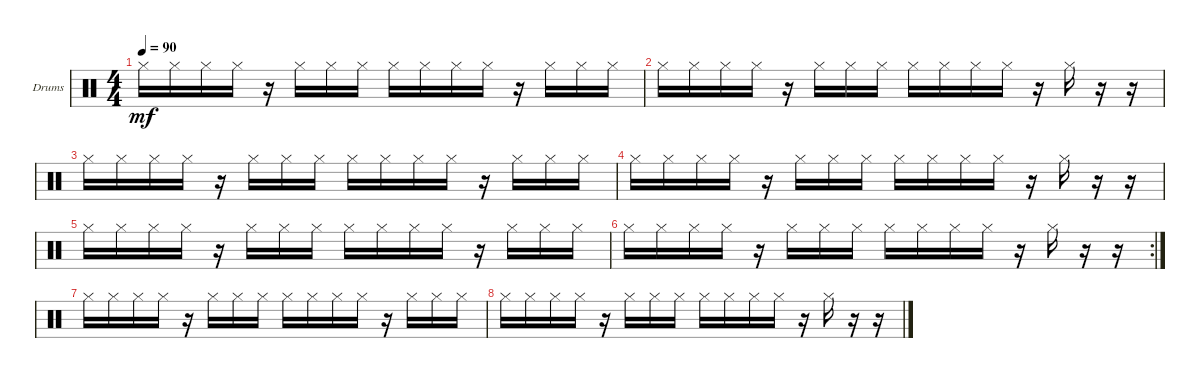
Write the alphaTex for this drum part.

\defaultSystemsLayout 4
\bracketExtendMode groupsimilarinstruments
\firstSystemTrackNameOrientation horizontal
\otherSystemsTrackNameOrientation horizontal
\track ("Drumkit" "Drums") {solo instrument percussion}
\staff {score}
\articulation defaults
\ts (4 4)
\tempo 90
\clef neutral
\ks c "Hi-Hat (closed)".16{dy mf} "Hi-Hat (closed)".16 "Hi-Hat (closed)".16 "Hi-Hat (closed)".16
r.16 "Hi-Hat (closed)".16 "Hi-Hat (closed)".16 "Hi-Hat (closed)".16 "Hi-Hat (closed)".16 "Hi-Hat (closed)".16 "Hi-Hat (closed)".16 "Hi-Hat (closed)".16 r.16 "Hi-Hat (closed)".16 "Hi-Hat (closed)".16 "Hi-Hat (closed)".16 |
"Hi-Hat (closed)".16 "Hi-Hat (closed)".16 "Hi-Hat (closed)".16 "Hi-Hat (closed)".16 r.16 "Hi-Hat (closed)".16 "Hi-Hat (closed)".16 "Hi-Hat (closed)".16 "Hi-Hat (closed)".16 "Hi-Hat (closed)".16 "Hi-Hat (closed)".16 "Hi-Hat (closed)".16 r.16 "Hi-Hat (closed)".16 r.16 r.16 |
"Hi-Hat (closed)".16 "Hi-Hat (closed)".16 "Hi-Hat (closed)".16 "Hi-Hat (closed)".16 r.16 "Hi-Hat (closed)".16 "Hi-Hat (closed)".16 "Hi-Hat (closed)".16 "Hi-Hat (closed)".16 "Hi-Hat (closed)".16 "Hi-Hat (closed)".16 "Hi-Hat (closed)".16 r.16 "Hi-Hat (closed)".16 "Hi-Hat (closed)".16 "Hi-Hat (closed)".16 |
"Hi-Hat (closed)".16 "Hi-Hat (closed)".16 "Hi-Hat (closed)".16 "Hi-Hat (closed)".16 r.16 "Hi-Hat (closed)".16 "Hi-Hat (closed)".16 "Hi-Hat (closed)".16 "Hi-Hat (closed)".16 "Hi-Hat (closed)".16 "Hi-Hat (closed)".16 "Hi-Hat (closed)".16 r.16 "Hi-Hat (closed)".16 r.16 r.16 |
"Hi-Hat (closed)".16 "Hi-Hat (closed)".16 "Hi-Hat (closed)".16 "Hi-Hat (closed)".16 r.16 "Hi-Hat (closed)".16 "Hi-Hat (closed)".16 "Hi-Hat (closed)".16 "Hi-Hat (closed)".16 "Hi-Hat (closed)".16 "Hi-Hat (closed)".16 "Hi-Hat (closed)".16 r.16 "Hi-Hat (closed)".16 "Hi-Hat (closed)".16 "Hi-Hat (closed)".16 |
\rc 2 "Hi-Hat (closed)".16 "Hi-Hat (closed)".16 "Hi-Hat (closed)".16 "Hi-Hat (closed)".16
r.16 "Hi-Hat (closed)".16 "Hi-Hat (closed)".16 "Hi-Hat (closed)".16 "Hi-Hat (closed)".16 "Hi-Hat (closed)".16 "Hi-Hat (closed)".16 "Hi-Hat (closed)".16 r.16 "Hi-Hat (closed)".16 r.16 r.16 |
"Hi-Hat (closed)".16 "Hi-Hat (closed)".16 "Hi-Hat (closed)".16 "Hi-Hat (closed)".16 r.16 "Hi-Hat (closed)".16 "Hi-Hat (closed)".16 "Hi-Hat (closed)".16 "Hi-Hat (closed)".16 "Hi-Hat (closed)".16 "Hi-Hat (closed)".16 "Hi-Hat (closed)".16 r.16 "Hi-Hat (closed)".16 "Hi-Hat (closed)".16 "Hi-Hat (closed)".16 |
"Hi-Hat (closed)".16 "Hi-Hat (closed)".16 "Hi-Hat (closed)".16 "Hi-Hat (closed)".16 r.16 "Hi-Hat (closed)".16 "Hi-Hat (closed)".16 "Hi-Hat (closed)".16 "Hi-Hat (closed)".16 "Hi-Hat (closed)".16 "Hi-Hat (closed)".16 "Hi-Hat (closed)".16 r.16 "Hi-Hat (closed)".16 r.16 r.16
